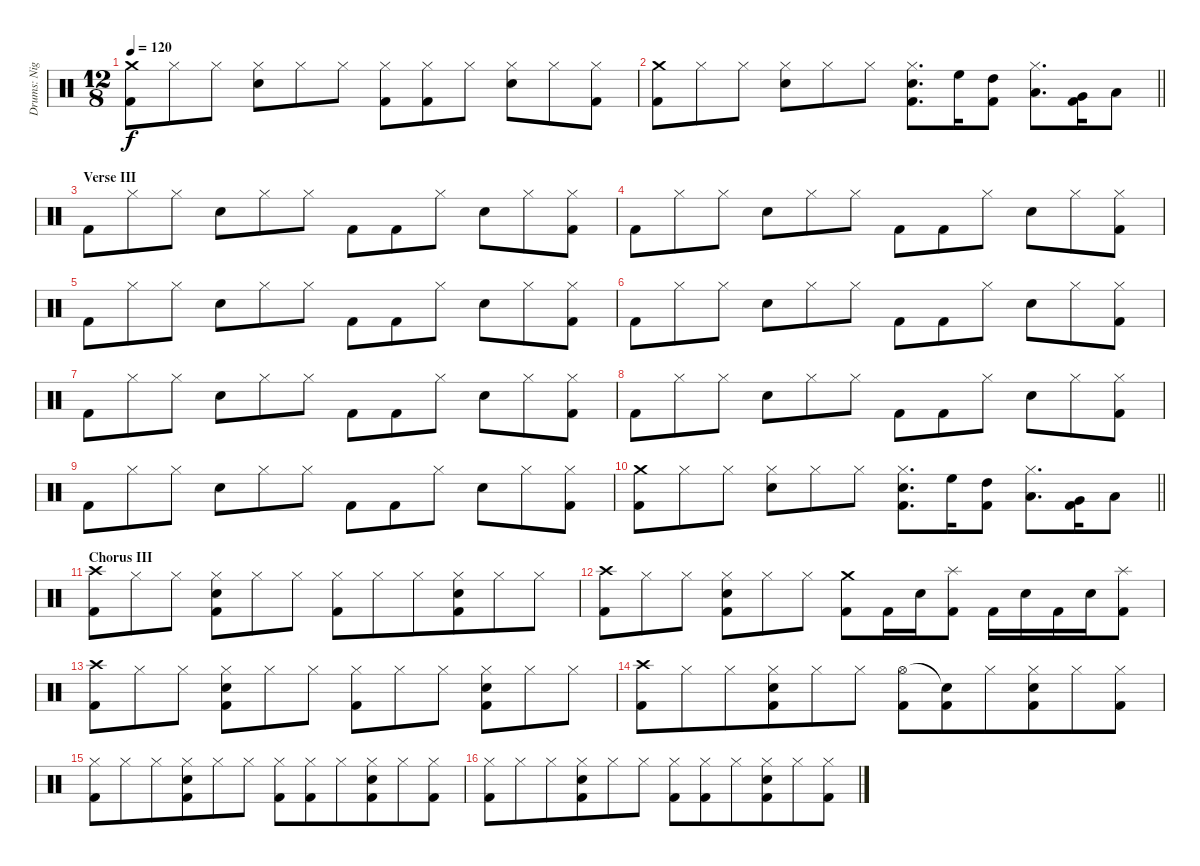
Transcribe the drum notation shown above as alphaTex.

\track ("Drums: Nigel" "Drums: Nig") {instrument percussion}
\staff {score}
\articulation defaults
\ts (12 8)
\tempo 120
\clef neutral
\ks c
("Crash medium (hit)" "Kick (hit) 2").8{dy f} "Hi-Hat (closed)".8 "Hi-Hat (closed)".8 ("Hi-Hat (closed)" "Snare (hit) 2").8 "Hi-Hat (closed)".8 "Hi-Hat (closed)".8 ("Hi-Hat (closed)" "Kick (hit) 2").8 ("Hi-Hat (closed)" "Kick (hit) 2").8 "Hi-Hat (closed)".8 ("Hi-Hat (closed)" "Snare (hit) 2").8 "Hi-Hat (closed)".8 ("Hi-Hat (closed)" "Kick (hit) 2").8 |
\barLineRight lightlight
("Crash medium (hit)" "Kick (hit) 2").8 "Hi-Hat (closed)".8 "Hi-Hat (closed)".8 ("Hi-Hat (closed)" "Snare (hit) 2").8 "Hi-Hat (closed)".8 "Hi-Hat (closed)".8 ("Hi-Hat (closed)" "Snare (hit) 2" "Kick (hit) 2").8{d} "High Floor Tom (hit)".16 ("High Tom (hit)" "Kick (hit) 2").8 ("Hi-Hat (closed)" "Low Tom (hit)").8{d} ("Very Low Tom (hit)" "Kick (hit) 2").16 "Low Floor Tom (hit)".8 |
\section ("" "Verse III")
"Kick (hit) 2".8 "Hi-Hat (closed)".8 "Hi-Hat (closed)".8 "Snare (hit) 2".8 "Hi-Hat (closed)".8 "Hi-Hat (closed)".8 "Kick (hit) 2".8 "Kick (hit) 2".8 "Hi-Hat (closed)".8 "Snare (hit) 2".8 "Hi-Hat (closed)".8 ("Hi-Hat (closed)" "Kick (hit) 2").8 |
"Kick (hit) 2".8 "Hi-Hat (closed)".8 "Hi-Hat (closed)".8 "Snare (hit) 2".8 "Hi-Hat (closed)".8 "Hi-Hat (closed)".8 "Kick (hit) 2".8 "Kick (hit) 2".8 "Hi-Hat (closed)".8 "Snare (hit) 2".8 "Hi-Hat (closed)".8 ("Hi-Hat (closed)" "Kick (hit) 2").8 |
"Kick (hit) 2".8 "Hi-Hat (closed)".8 "Hi-Hat (closed)".8 "Snare (hit) 2".8 "Hi-Hat (closed)".8 "Hi-Hat (closed)".8 "Kick (hit) 2".8 "Kick (hit) 2".8 "Hi-Hat (closed)".8 "Snare (hit) 2".8 "Hi-Hat (closed)".8 ("Hi-Hat (closed)" "Kick (hit) 2").8 |
"Kick (hit) 2".8 "Hi-Hat (closed)".8 "Hi-Hat (closed)".8 "Snare (hit) 2".8 "Hi-Hat (closed)".8 "Hi-Hat (closed)".8 "Kick (hit) 2".8 "Kick (hit) 2".8 "Hi-Hat (closed)".8 "Snare (hit) 2".8 "Hi-Hat (closed)".8 ("Hi-Hat (closed)" "Kick (hit) 2").8 |
"Kick (hit) 2".8 "Hi-Hat (closed)".8 "Hi-Hat (closed)".8 "Snare (hit) 2".8 "Hi-Hat (closed)".8 "Hi-Hat (closed)".8 "Kick (hit) 2".8 "Kick (hit) 2".8 "Hi-Hat (closed)".8 "Snare (hit) 2".8 "Hi-Hat (closed)".8 ("Hi-Hat (closed)" "Kick (hit) 2").8 |
"Kick (hit) 2".8 "Hi-Hat (closed)".8 "Hi-Hat (closed)".8 "Snare (hit) 2".8 "Hi-Hat (closed)".8 "Hi-Hat (closed)".8 "Kick (hit) 2".8 "Kick (hit) 2".8 "Hi-Hat (closed)".8 "Snare (hit) 2".8 "Hi-Hat (closed)".8 ("Hi-Hat (closed)" "Kick (hit) 2").8 |
"Kick (hit) 2".8 "Hi-Hat (closed)".8 "Hi-Hat (closed)".8 "Snare (hit) 2".8 "Hi-Hat (closed)".8 "Hi-Hat (closed)".8 "Kick (hit) 2".8 "Kick (hit) 2".8 "Hi-Hat (closed)".8 "Snare (hit) 2".8 "Hi-Hat (closed)".8 ("Hi-Hat (closed)" "Kick (hit) 2").8 |
\barLineRight lightlight
("Crash medium (hit)" "Kick (hit) 2").8 "Hi-Hat (closed)".8 "Hi-Hat (closed)".8 ("Hi-Hat (closed)" "Snare (hit) 2").8 "Hi-Hat (closed)".8 "Hi-Hat (closed)".8 ("Hi-Hat (closed)" "Snare (hit) 2" "Kick (hit) 2").8{d} "High Floor Tom (hit)".16 ("High Tom (hit)" "Kick (hit) 2").8 ("Hi-Hat (closed)" "Low Tom (hit)").8{d} ("Very Low Tom (hit)" "Kick (hit) 2").16 "Low Floor Tom (hit)".8 |
\section ("" "Chorus III")
("Crash high (hit)" "Kick (hit) 2").8 "Hi-Hat (closed)".8{beam merge} "Hi-Hat (closed)".8 ("Hi-Hat (closed)" "Snare (hit) 2" "Kick (hit) 2").8{beam merge} "Hi-Hat (closed)".8 "Hi-Hat (closed)".8 ("Hi-Hat (closed)" "Kick (hit) 2").8 "Hi-Hat (closed)".8{beam merge} "Hi-Hat (closed)".8{beam merge} ("Hi-Hat (closed)" "Snare (hit) 2" "Kick (hit) 2").8{beam merge} "Hi-Hat (closed)".8 "Hi-Hat (closed)".8 |
("Crash high (hit)" "Kick (hit) 2").8 "Hi-Hat (closed)".8{beam merge} "Hi-Hat (closed)".8 ("Hi-Hat (closed)" "Snare (hit) 2" "Kick (hit) 2").8{beam merge} "Hi-Hat (closed)".8 "Hi-Hat (closed)".8 ("Crash medium (hit)" "Kick (hit) 2").8 "Kick (hit) 2".16 "Snare (hit) 2".16 ("Splash (hit)" "Kick (hit) 2").8 "Kick (hit) 2".16 "Snare (hit) 2".16 "Kick (hit) 2".16 "Snare (hit) 2".16 ("Splash (hit)" "Kick (hit) 2").8 |
("Crash high (hit)" "Kick (hit) 2").8 "Hi-Hat (closed)".8{beam merge} "Hi-Hat (closed)".8 ("Hi-Hat (closed)" "Snare (hit) 2" "Kick (hit) 2").8{beam merge} "Hi-Hat (closed)".8 "Hi-Hat (closed)".8 ("Hi-Hat (closed)" "Kick (hit) 2").8 "Hi-Hat (closed)".8{beam merge} "Hi-Hat (closed)".8 ("Hi-Hat (closed)" "Snare (hit) 2" "Kick (hit) 2").8{beam merge} "Hi-Hat (closed)".8 "Hi-Hat (closed)".8 |
("Crash high (hit)" "Kick (hit) 2").8 "Hi-Hat (closed)".8{beam merge} "Hi-Hat (closed)".8{beam merge} ("Hi-Hat (closed)" "Snare (hit) 2" "Kick (hit) 2").8{beam merge} "Hi-Hat (closed)".8 "Hi-Hat (closed)".8 ("Hi-Hat (open)" "Kick (hit) 2").8 ("Snare (hit)"{t} "Kick (hit) 2").8{beam merge} "Hi-Hat (closed)".8{beam merge} ("Hi-Hat (closed)" "Snare (hit) 2" "Kick (hit) 2").8 "Hi-Hat (closed)".8 ("Hi-Hat (closed)" "Kick (hit) 2").8 |
("Hi-Hat (closed)" "Kick (hit) 2").8 "Hi-Hat (closed)".8{beam merge} "Hi-Hat (closed)".8{beam merge} ("Hi-Hat (closed)" "Snare (hit) 2" "Kick (hit) 2").8{beam merge} "Hi-Hat (closed)".8 "Hi-Hat (closed)".8 ("Hi-Hat (closed)" "Kick (hit) 2").8 ("Hi-Hat (closed)" "Kick (hit) 2").8{beam merge} "Hi-Hat (closed)".8{beam merge} ("Hi-Hat (closed)" "Snare (hit) 2" "Kick (hit) 2").8 "Hi-Hat (closed)".8 ("Hi-Hat (closed)" "Kick (hit) 2").8 |
("Hi-Hat (closed)" "Kick (hit) 2").8 "Hi-Hat (closed)".8{beam merge} "Hi-Hat (closed)".8{beam merge} ("Hi-Hat (closed)" "Snare (hit) 2" "Kick (hit) 2").8{beam merge} "Hi-Hat (closed)".8 "Hi-Hat (closed)".8 ("Hi-Hat (closed)" "Kick (hit) 2").8 ("Hi-Hat (closed)" "Kick (hit) 2").8{beam merge} "Hi-Hat (closed)".8{beam merge} ("Hi-Hat (closed)" "Snare (hit) 2" "Kick (hit) 2").8 "Hi-Hat (closed)".8 ("Hi-Hat (closed)" "Kick (hit) 2").8
